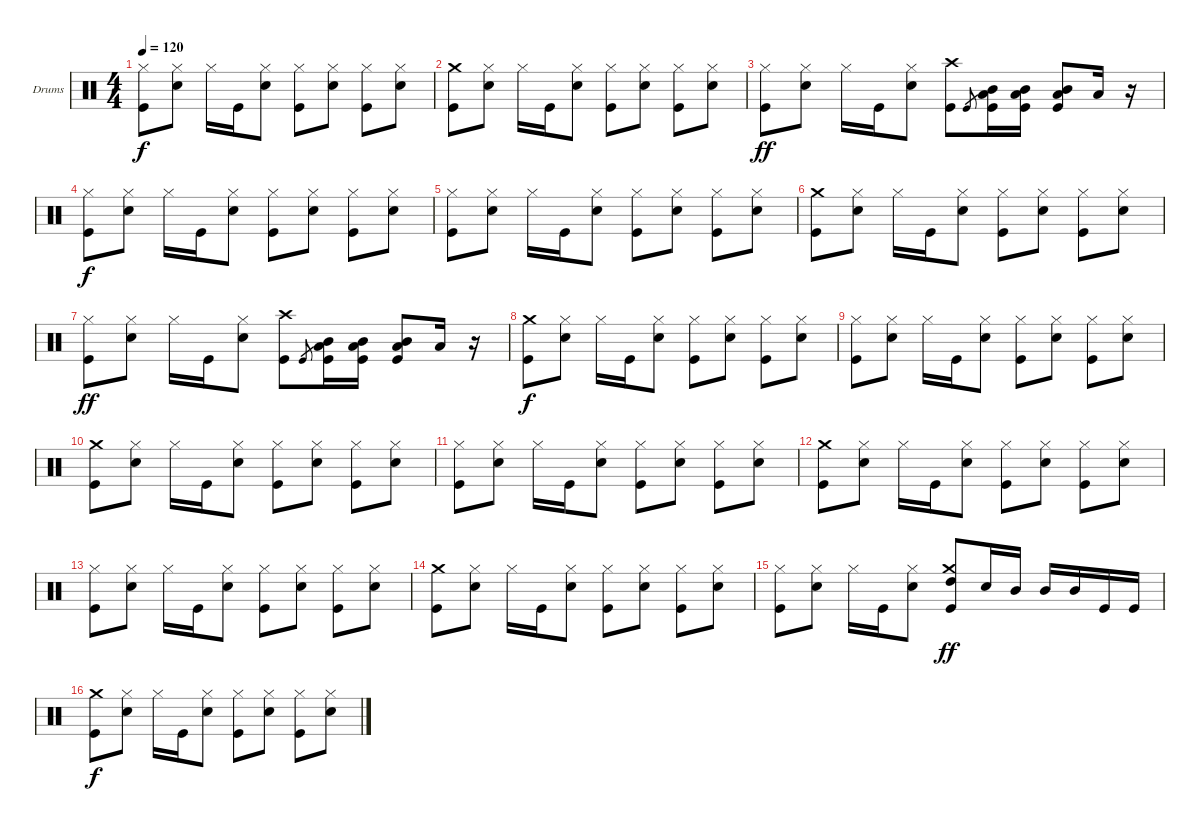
\defaultSystemsLayout 4
\bracketExtendMode groupsimilarinstruments
\firstSystemTrackNameOrientation horizontal
\otherSystemsTrackNameOrientation horizontal
\track ("Drumkit" "Drums") {instrument percussion}
\staff {score}
\articulation defaults
\ts (4 4)
\tempo 120
\clef neutral
\scale
0.333333
\ks c
("Kick (hit)" "Hi-Hat (closed)").8{dy f} ("Snare (hit) 2" "Hi-Hat (closed)").8 "Hi-Hat (closed)".16 "Kick (hit)".16 ("Snare (hit) 2" "Hi-Hat (closed)").8 ("Kick (hit)" "Hi-Hat (closed)").8 ("Snare (hit) 2" "Hi-Hat (closed)").8 ("Kick (hit)" "Hi-Hat (closed)").8 ("Snare (hit) 2" "Hi-Hat (closed)").8 |
\scale
0.333333 ("Kick (hit)" "Crash medium (hit)").8 ("Snare (hit) 2" "Hi-Hat (closed)").8 "Hi-Hat (closed)".16 "Kick (hit)".16 ("Snare (hit) 2" "Hi-Hat (closed)").8 ("Kick (hit)" "Hi-Hat (closed)").8 ("Snare (hit) 2" "Hi-Hat (closed)").8 ("Kick (hit)" "Hi-Hat (closed)").8 ("Snare (hit) 2" "Hi-Hat (closed)").8 |
\scale
0.333333 ("Kick (hit)" "Hi-Hat (closed)").8{dy ff} ("Snare (hit) 2" "Hi-Hat (closed)").8 "Hi-Hat (closed)".16 "Kick (hit)".16 ("Snare (hit) 2" "Hi-Hat (closed)").8 ("Kick (hit)" "Crash high (hit)").8 "Kick (hit)".8{gr} ("Kick (hit)" "Low Tom (hit)" "Mid Tom (hit)").16 ("Kick (hit)" "Low Tom (hit)" "Mid Tom (hit)").16 ("Kick (hit)" "Low Tom (hit)" "Mid Tom (hit)").8 "Low Tom (hit)".16 r.16 |
\scale
0.333333 ("Kick (hit)" "Hi-Hat (closed)").8{dy f} ("Snare (hit) 2" "Hi-Hat (closed)").8 "Hi-Hat (closed)".16 "Kick (hit)".16 ("Snare (hit) 2" "Hi-Hat (closed)").8 ("Kick (hit)" "Hi-Hat (closed)").8 ("Snare (hit) 2" "Hi-Hat (closed)").8 ("Kick (hit)" "Hi-Hat (closed)").8 ("Snare (hit) 2" "Hi-Hat (closed)").8 |
\scale
0.333333 ("Kick (hit)" "Hi-Hat (closed)").8 ("Snare (hit) 2" "Hi-Hat (closed)").8 "Hi-Hat (closed)".16 "Kick (hit)".16 ("Snare (hit) 2" "Hi-Hat (closed)").8 ("Kick (hit)" "Hi-Hat (closed)").8 ("Snare (hit) 2" "Hi-Hat (closed)").8 ("Kick (hit)" "Hi-Hat (closed)").8 ("Snare (hit) 2" "Hi-Hat (closed)").8 |
\scale
0.333333 ("Kick (hit)" "Crash medium (hit)").8 ("Snare (hit) 2" "Hi-Hat (closed)").8 "Hi-Hat (closed)".16 "Kick (hit)".16 ("Snare (hit) 2" "Hi-Hat (closed)").8 ("Kick (hit)" "Hi-Hat (closed)").8 ("Snare (hit) 2" "Hi-Hat (closed)").8 ("Kick (hit)" "Hi-Hat (closed)").8 ("Snare (hit) 2" "Hi-Hat (closed)").8 |
\scale
0.333333 ("Kick (hit)" "Hi-Hat (closed)").8{dy ff} ("Snare (hit) 2" "Hi-Hat (closed)").8 "Hi-Hat (closed)".16 "Kick (hit)".16 ("Snare (hit) 2" "Hi-Hat (closed)").8 ("Kick (hit)" "Crash high (hit)").8 "Kick (hit)".8{gr} ("Kick (hit)" "Low Tom (hit)" "Mid Tom (hit)").16 ("Kick (hit)" "Low Tom (hit)" "Mid Tom (hit)").16 ("Kick (hit)" "Low Tom (hit)" "Mid Tom (hit)").8 "Low Tom (hit)".16 r.16 |
\scale
0.333333 ("Kick (hit)" "Crash medium (hit)").8{dy f} ("Snare (hit) 2" "Hi-Hat (closed)").8 "Hi-Hat (closed)".16 "Kick (hit)".16 ("Snare (hit) 2" "Hi-Hat (closed)").8 ("Kick (hit)" "Hi-Hat (closed)").8 ("Snare (hit) 2" "Hi-Hat (closed)").8 ("Kick (hit)" "Hi-Hat (closed)").8 ("Snare (hit) 2" "Hi-Hat (closed)").8 |
\scale
0.333333 ("Kick (hit)" "Hi-Hat (closed)").8 ("Snare (hit) 2" "Hi-Hat (closed)").8 "Hi-Hat (closed)".16 "Kick (hit)".16 ("Snare (hit) 2" "Hi-Hat (closed)").8 ("Kick (hit)" "Hi-Hat (closed)").8 ("Snare (hit) 2" "Hi-Hat (closed)").8 ("Kick (hit)" "Hi-Hat (closed)").8 ("Snare (hit) 2" "Hi-Hat (closed)").8 |
\scale
0.333333 ("Kick (hit)" "Crash medium (hit)").8 ("Snare (hit) 2" "Hi-Hat (closed)").8 "Hi-Hat (closed)".16 "Kick (hit)".16 ("Snare (hit) 2" "Hi-Hat (closed)").8 ("Kick (hit)" "Hi-Hat (closed)").8 ("Snare (hit) 2" "Hi-Hat (closed)").8 ("Kick (hit)" "Hi-Hat (closed)").8 ("Snare (hit) 2" "Hi-Hat (closed)").8 |
\scale
0.333333 ("Kick (hit)" "Hi-Hat (closed)").8 ("Snare (hit) 2" "Hi-Hat (closed)").8 "Hi-Hat (closed)".16 "Kick (hit)".16 ("Snare (hit) 2" "Hi-Hat (closed)").8 ("Kick (hit)" "Hi-Hat (closed)").8 ("Snare (hit) 2" "Hi-Hat (closed)").8 ("Kick (hit)" "Hi-Hat (closed)").8 ("Snare (hit) 2" "Hi-Hat (closed)").8 |
\scale
0.333333 ("Kick (hit)" "Crash medium (hit)").8 ("Snare (hit) 2" "Hi-Hat (closed)").8 "Hi-Hat (closed)".16 "Kick (hit)".16 ("Snare (hit) 2" "Hi-Hat (closed)").8 ("Kick (hit)" "Hi-Hat (closed)").8 ("Snare (hit) 2" "Hi-Hat (closed)").8 ("Kick (hit)" "Hi-Hat (closed)").8 ("Snare (hit) 2" "Hi-Hat (closed)").8 |
\scale
0.333333 ("Kick (hit)" "Hi-Hat (closed)").8 ("Snare (hit) 2" "Hi-Hat (closed)").8 "Hi-Hat (closed)".16 "Kick (hit)".16 ("Snare (hit) 2" "Hi-Hat (closed)").8 ("Kick (hit)" "Hi-Hat (closed)").8 ("Snare (hit) 2" "Hi-Hat (closed)").8 ("Kick (hit)" "Hi-Hat (closed)").8 ("Snare (hit) 2" "Hi-Hat (closed)").8 |
\scale
0.333333 ("Kick (hit)" "Crash medium (hit)").8 ("Snare (hit) 2" "Hi-Hat (closed)").8 "Hi-Hat (closed)".16 "Kick (hit)".16 ("Snare (hit) 2" "Hi-Hat (closed)").8 ("Kick (hit)" "Hi-Hat (closed)").8 ("Snare (hit) 2" "Hi-Hat (closed)").8 ("Kick (hit)" "Hi-Hat (closed)").8 ("Snare (hit) 2" "Hi-Hat (closed)").8 |
\scale
0.333333 ("Kick (hit)" "Hi-Hat (closed)").8 ("Snare (hit) 2" "Hi-Hat (closed)").8 "Hi-Hat (closed)".16 "Kick (hit)".16 ("Snare (hit) 2" "Hi-Hat (closed)").8 ("Kick (hit)" "Crash medium (hit)" "High Tom (hit)").8{dy ff} "Snare (hit) 2".16 "Mid Tom (hit)".16 "Mid Tom (hit)".16 "Mid Tom (hit)".16 "Kick (hit)".16 "Kick (hit)".16 |
\scale
0.333333 ("Kick (hit)" "Crash medium (hit)").8{dy f} ("Snare (hit) 2" "Hi-Hat (closed)").8 "Hi-Hat (closed)".16 "Kick (hit)".16 ("Snare (hit) 2" "Hi-Hat (closed)").8 ("Kick (hit)" "Hi-Hat (closed)").8 ("Snare (hit) 2" "Hi-Hat (closed)").8 ("Kick (hit)" "Hi-Hat (closed)").8 ("Snare (hit) 2" "Hi-Hat (closed)").8
